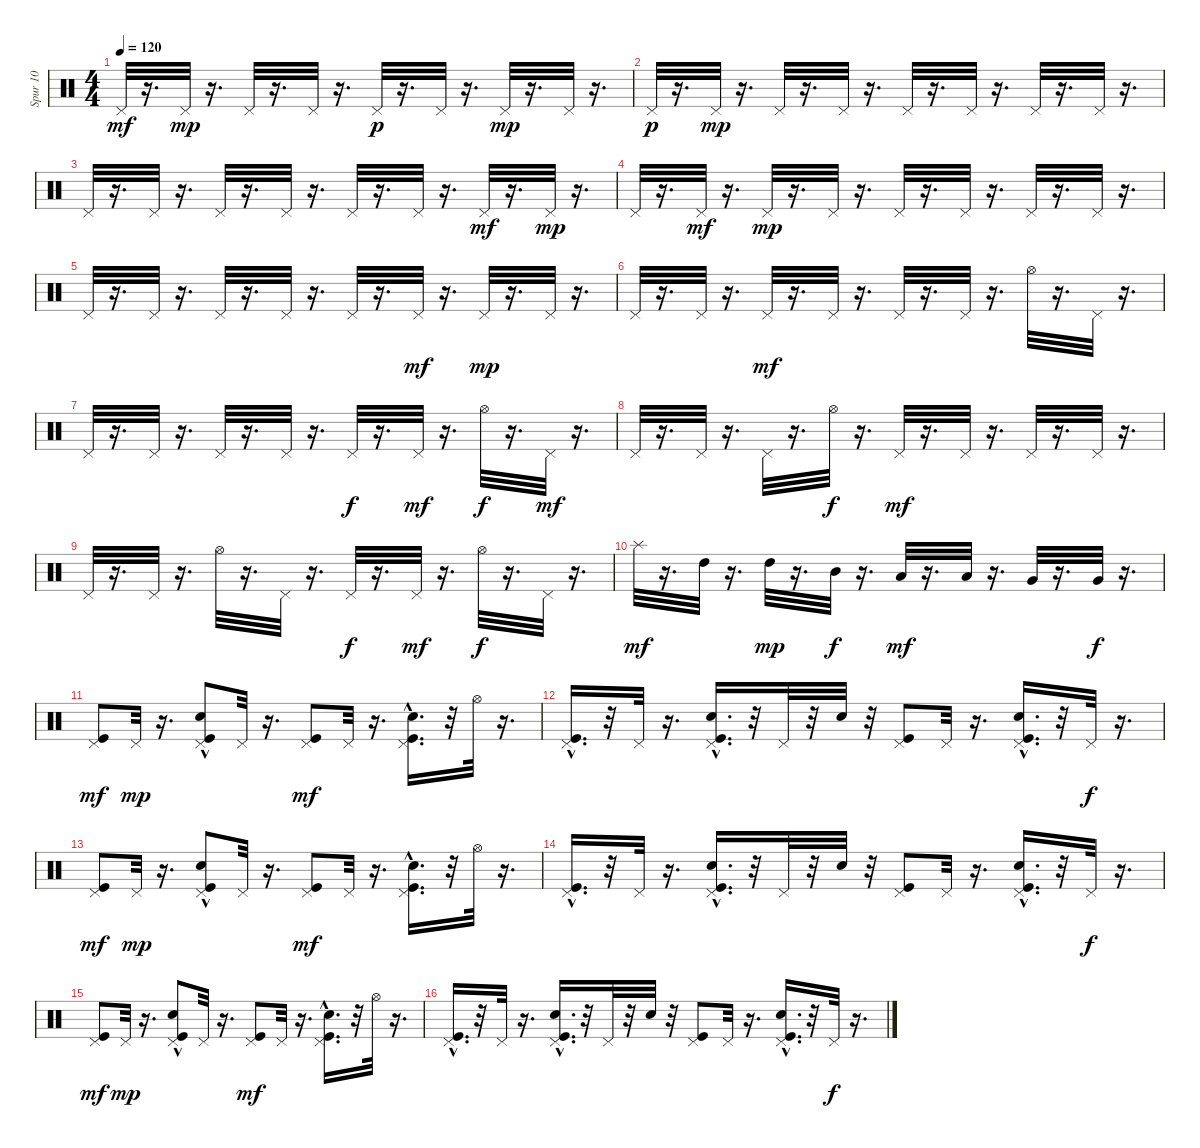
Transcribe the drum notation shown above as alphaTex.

\track ("Spur 10" "Spur 10") {instrument percussion}
\staff {score}
\articulation defaults
\ts (4 4)
\tempo 120
\clef neutral
\ks c "Pedal Hi-Hat (hit)".32{dy mf}
r.16{d} "Pedal Hi-Hat (hit)".32{dy mp} r.16{d} "Pedal Hi-Hat (hit)".32 r.16{d} "Pedal Hi-Hat (hit)".32 r.16{d} "Pedal Hi-Hat (hit)".32{dy p} r.16{d} "Pedal Hi-Hat (hit)".32 r.16{d} "Pedal Hi-Hat (hit)".32{dy mp} r.16{d} "Pedal Hi-Hat (hit)".32 r.16{d} |
"Pedal Hi-Hat (hit)".32{dy p} r.16{d} "Pedal Hi-Hat (hit)".32{dy mp} r.16{d} "Pedal Hi-Hat (hit)".32 r.16{d} "Pedal Hi-Hat (hit)".32 r.16{d} "Pedal Hi-Hat (hit)".32 r.16{d} "Pedal Hi-Hat (hit)".32 r.16{d} "Pedal Hi-Hat (hit)".32 r.16{d} "Pedal Hi-Hat (hit)".32 r.16{d} |
"Pedal Hi-Hat (hit)".32 r.16{d} "Pedal Hi-Hat (hit)".32 r.16{d} "Pedal Hi-Hat (hit)".32 r.16{d} "Pedal Hi-Hat (hit)".32 r.16{d} "Pedal Hi-Hat (hit)".32 r.16{d} "Pedal Hi-Hat (hit)".32 r.16{d} "Pedal Hi-Hat (hit)".32{dy mf} r.16{d} "Pedal Hi-Hat (hit)".32{dy mp} r.16{d} |
"Pedal Hi-Hat (hit)".32 r.16{d} "Pedal Hi-Hat (hit)".32{dy mf} r.16{d} "Pedal Hi-Hat (hit)".32{dy mp} r.16{d} "Pedal Hi-Hat (hit)".32 r.16{d} "Pedal Hi-Hat (hit)".32 r.16{d} "Pedal Hi-Hat (hit)".32 r.16{d} "Pedal Hi-Hat (hit)".32 r.16{d} "Pedal Hi-Hat (hit)".32 r.16{d} |
"Pedal Hi-Hat (hit)".32 r.16{d} "Pedal Hi-Hat (hit)".32 r.16{d} "Pedal Hi-Hat (hit)".32 r.16{d} "Pedal Hi-Hat (hit)".32 r.16{d} "Pedal Hi-Hat (hit)".32 r.16{d} "Pedal Hi-Hat (hit)".32{dy mf} r.16{d} "Pedal Hi-Hat (hit)".32{dy mp} r.16{d} "Pedal Hi-Hat (hit)".32 r.16{d} |
"Pedal Hi-Hat (hit)".32 r.16{d} "Pedal Hi-Hat (hit)".32 r.16{d} "Pedal Hi-Hat (hit)".32{dy mf} r.16{d} "Pedal Hi-Hat (hit)".32 r.16{d} "Pedal Hi-Hat (hit)".32 r.16{d} "Pedal Hi-Hat (hit)".32 r.16{d} "Hi-Hat (open)".32 r.16{d} "Pedal Hi-Hat (hit)".32 r.16{d} |
"Pedal Hi-Hat (hit)".32 r.16{d} "Pedal Hi-Hat (hit)".32 r.16{d} "Pedal Hi-Hat (hit)".32 r.16{d} "Pedal Hi-Hat (hit)".32 r.16{d} "Pedal Hi-Hat (hit)".32{dy f} r.16{d} "Pedal Hi-Hat (hit)".32{dy mf} r.16{d} "Hi-Hat (open)".32{dy f} r.16{d} "Pedal Hi-Hat (hit)".32{dy mf} r.16{d} |
"Pedal Hi-Hat (hit)".32 r.16{d} "Pedal Hi-Hat (hit)".32 r.16{d} "Pedal Hi-Hat (hit)".32 r.16{d} "Hi-Hat (open)".32{dy f} r.16{d} "Pedal Hi-Hat (hit)".32{dy mf} r.16{d} "Pedal Hi-Hat (hit)".32 r.16{d} "Pedal Hi-Hat (hit)".32 r.16{d} "Pedal Hi-Hat (hit)".32 r.16{d} |
"Pedal Hi-Hat (hit)".32 r.16{d} "Pedal Hi-Hat (hit)".32 r.16{d} "Hi-Hat (open)".32 r.16{d} "Pedal Hi-Hat (hit)".32 r.16{d} "Pedal Hi-Hat (hit)".32{dy f} r.16{d} "Pedal Hi-Hat (hit)".32{dy mf} r.16{d} "Hi-Hat (open)".32{dy f} r.16{d} "Pedal Hi-Hat (hit)".32 r.16{d} |
"Splash (hit)".32{dy mf} r.16{d} "High Tom (hit)".32 r.16{d} "High Tom (hit)".32{dy mp} r.16{d} "Mid Tom (hit)".32{dy f} r.16{d} "Low Tom (hit)".32{dy mf} r.16{d} "Low Tom (hit)".32 r.16{d} "Very Low Tom (hit)".32 r.16{d} "Very Low Tom (hit)".32{dy f} r.16{d} |
("Kick (hit)" "Pedal Hi-Hat (hit)").8{dy mf} "Pedal Hi-Hat (hit)".32{dy mp} r.16{d} ("Kick (hit)" "Snare (hit) 2"{hac} "Pedal Hi-Hat (hit)").8 "Pedal Hi-Hat (hit)".32 r.16{d} ("Kick (hit)" "Pedal Hi-Hat (hit)").8{dy mf} "Pedal Hi-Hat (hit)".32 r.16{d} ("Snare (hit) 2" "Kick (hit)"{hac} "Pedal Hi-Hat (hit)").16{d} r.32 "Hi-Hat (open)".32 r.16{d} |
("Kick (hit)"{hac} "Pedal Hi-Hat (hit)").16{d} r.32 "Pedal Hi-Hat (hit)".32 r.16{d} ("Kick (hit)"{hac} "Snare (hit) 2" "Pedal Hi-Hat (hit)").16{d} r.32 "Pedal Hi-Hat (hit)".32 r.32 "Snare (hit) 2".32 r.32 ("Kick (hit)" "Pedal Hi-Hat (hit)").8 "Pedal Hi-Hat (hit)".32 r.16{d} ("Snare (hit) 2" "Kick (hit)"{hac} "Pedal Hi-Hat (hit)").16{d} r.32 "Pedal Hi-Hat (hit)".32{dy f} r.16{d} |
("Kick (hit)" "Pedal Hi-Hat (hit)").8{dy mf} "Pedal Hi-Hat (hit)".32{dy mp} r.16{d} ("Kick (hit)" "Snare (hit) 2"{hac} "Pedal Hi-Hat (hit)").8 "Pedal Hi-Hat (hit)".32 r.16{d} ("Kick (hit)" "Pedal Hi-Hat (hit)").8{dy mf} "Pedal Hi-Hat (hit)".32 r.16{d} ("Snare (hit) 2" "Kick (hit)"{hac} "Pedal Hi-Hat (hit)").16{d} r.32 "Hi-Hat (open)".32 r.16{d} |
("Kick (hit)"{hac} "Pedal Hi-Hat (hit)").16{d} r.32 "Pedal Hi-Hat (hit)".32 r.16{d} ("Kick (hit)"{hac} "Snare (hit) 2" "Pedal Hi-Hat (hit)").16{d} r.32 "Pedal Hi-Hat (hit)".32 r.32 "Snare (hit) 2".32 r.32 ("Kick (hit)" "Pedal Hi-Hat (hit)").8 "Pedal Hi-Hat (hit)".32 r.16{d} ("Snare (hit) 2" "Kick (hit)"{hac} "Pedal Hi-Hat (hit)").16{d} r.32 "Pedal Hi-Hat (hit)".32{dy f} r.16{d} |
("Kick (hit)" "Pedal Hi-Hat (hit)").8{dy mf} "Pedal Hi-Hat (hit)".32{dy mp} r.16{d} ("Kick (hit)" "Snare (hit) 2"{hac} "Pedal Hi-Hat (hit)").8 "Pedal Hi-Hat (hit)".32 r.16{d} ("Kick (hit)" "Pedal Hi-Hat (hit)").8{dy mf} "Pedal Hi-Hat (hit)".32 r.16{d} ("Snare (hit) 2" "Kick (hit)"{hac} "Pedal Hi-Hat (hit)").16{d} r.32 "Hi-Hat (open)".32 r.16{d} |
("Kick (hit)"{hac} "Pedal Hi-Hat (hit)").16{d} r.32 "Pedal Hi-Hat (hit)".32 r.16{d} ("Kick (hit)"{hac} "Snare (hit) 2" "Pedal Hi-Hat (hit)").16{d} r.32 "Pedal Hi-Hat (hit)".32 r.32 "Snare (hit) 2".32 r.32 ("Kick (hit)" "Pedal Hi-Hat (hit)").8 "Pedal Hi-Hat (hit)".32 r.16{d} ("Snare (hit) 2" "Kick (hit)"{hac} "Pedal Hi-Hat (hit)").16{d} r.32 "Pedal Hi-Hat (hit)".32{dy f} r.16{d}
